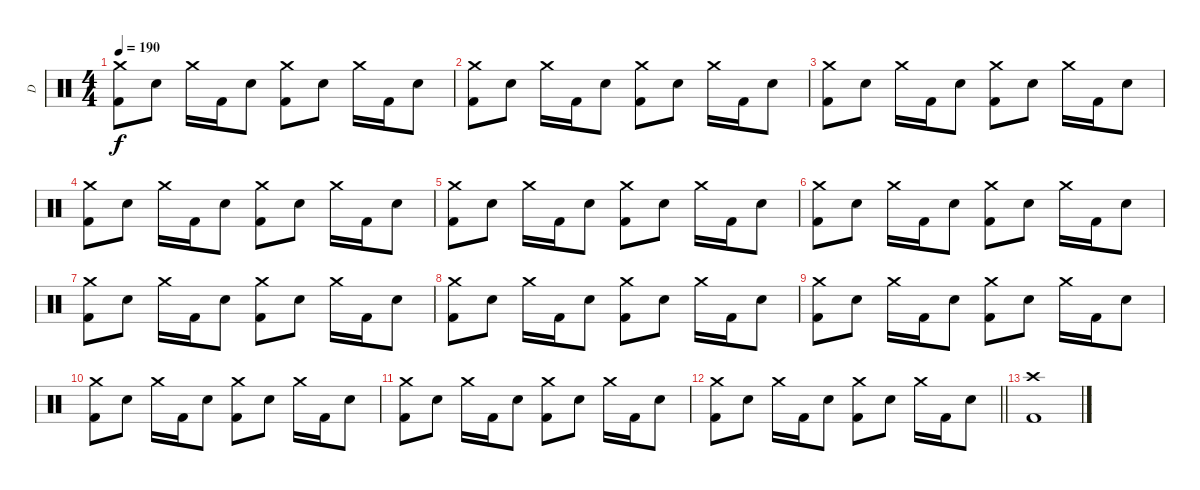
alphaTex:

\track ("D" "D") {instrument percussion}
\staff {score}
\articulation defaults
\ts (4 4)
\tempo 190
\clef neutral
\ks c
("Crash medium (hit)" "Kick (hit) 2").8{dy f} "Electric Snare (hit)".8 "Crash medium (hit)".16 "Kick (hit) 2".16 "Electric Snare (hit)".8 ("Crash medium (hit)" "Kick (hit) 2").8 "Electric Snare (hit)".8 "Crash medium (hit)".16 "Kick (hit) 2".16 "Electric Snare (hit)".8 |
("Crash medium (hit)" "Kick (hit) 2").8 "Electric Snare (hit)".8 "Crash medium (hit)".16 "Kick (hit) 2".16 "Electric Snare (hit)".8 ("Crash medium (hit)" "Kick (hit) 2").8 "Electric Snare (hit)".8 "Crash medium (hit)".16 "Kick (hit) 2".16 "Electric Snare (hit)".8 |
("Crash medium (hit)" "Kick (hit) 2").8 "Electric Snare (hit)".8 "Crash medium (hit)".16 "Kick (hit) 2".16 "Electric Snare (hit)".8 ("Crash medium (hit)" "Kick (hit) 2").8 "Electric Snare (hit)".8 "Crash medium (hit)".16 "Kick (hit) 2".16 "Electric Snare (hit)".8 |
("Crash medium (hit)" "Kick (hit) 2").8 "Electric Snare (hit)".8 "Crash medium (hit)".16 "Kick (hit) 2".16 "Electric Snare (hit)".8 ("Crash medium (hit)" "Kick (hit) 2").8 "Electric Snare (hit)".8 "Crash medium (hit)".16 "Kick (hit) 2".16 "Electric Snare (hit)".8 |
("Crash medium (hit)" "Kick (hit) 2").8 "Electric Snare (hit)".8 "Crash medium (hit)".16 "Kick (hit) 2".16 "Electric Snare (hit)".8 ("Crash medium (hit)" "Kick (hit) 2").8 "Electric Snare (hit)".8 "Crash medium (hit)".16 "Kick (hit) 2".16 "Electric Snare (hit)".8 |
("Crash medium (hit)" "Kick (hit) 2").8 "Electric Snare (hit)".8 "Crash medium (hit)".16 "Kick (hit) 2".16 "Electric Snare (hit)".8 ("Crash medium (hit)" "Kick (hit) 2").8 "Electric Snare (hit)".8 "Crash medium (hit)".16 "Kick (hit) 2".16 "Electric Snare (hit)".8 |
("Crash medium (hit)" "Kick (hit) 2").8 "Electric Snare (hit)".8 "Crash medium (hit)".16 "Kick (hit) 2".16 "Electric Snare (hit)".8 ("Crash medium (hit)" "Kick (hit) 2").8 "Electric Snare (hit)".8 "Crash medium (hit)".16 "Kick (hit) 2".16 "Electric Snare (hit)".8 |
("Crash medium (hit)" "Kick (hit) 2").8 "Electric Snare (hit)".8 "Crash medium (hit)".16 "Kick (hit) 2".16 "Electric Snare (hit)".8 ("Crash medium (hit)" "Kick (hit) 2").8 "Electric Snare (hit)".8 "Crash medium (hit)".16 "Kick (hit) 2".16 "Electric Snare (hit)".8 |
("Crash medium (hit)" "Kick (hit) 2").8 "Electric Snare (hit)".8 "Crash medium (hit)".16 "Kick (hit) 2".16 "Electric Snare (hit)".8 ("Crash medium (hit)" "Kick (hit) 2").8 "Electric Snare (hit)".8 "Crash medium (hit)".16 "Kick (hit) 2".16 "Electric Snare (hit)".8 |
("Crash medium (hit)" "Kick (hit) 2").8 "Electric Snare (hit)".8 "Crash medium (hit)".16 "Kick (hit) 2".16 "Electric Snare (hit)".8 ("Crash medium (hit)" "Kick (hit) 2").8 "Electric Snare (hit)".8 "Crash medium (hit)".16 "Kick (hit) 2".16 "Electric Snare (hit)".8 |
("Crash medium (hit)" "Kick (hit) 2").8 "Electric Snare (hit)".8 "Crash medium (hit)".16 "Kick (hit) 2".16 "Electric Snare (hit)".8 ("Crash medium (hit)" "Kick (hit) 2").8 "Electric Snare (hit)".8 "Crash medium (hit)".16 "Kick (hit) 2".16 "Electric Snare (hit)".8 |
\barLineRight lightlight
("Crash medium (hit)" "Kick (hit) 2").8 "Electric Snare (hit)".8 "Crash medium (hit)".16 "Kick (hit) 2".16 "Electric Snare (hit)".8 ("Crash medium (hit)" "Kick (hit) 2").8 "Electric Snare (hit)".8 "Crash medium (hit)".16 "Kick (hit) 2".16 "Electric Snare (hit)".8 |
\section ("" "")
("Crash high (hit)" "Kick (hit) 2").1
